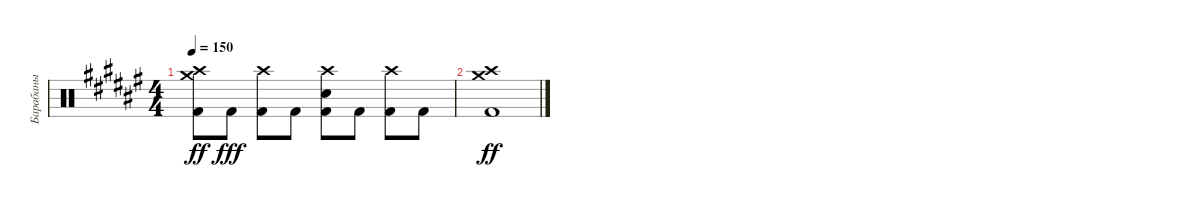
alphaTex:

\track ("Барабаны" "Барабаны") {instrument percussion}
\staff {score}
\articulation defaults
\ts (4 4)
\tempo 150
\clef neutral
\ks d#minor
("Crash high (hit)" "Kick (hit) 2" "Crash medium (hit)").8{dy ff} "Kick (hit) 2".8{dy fff} ("Crash high (hit)" "Kick (hit) 2").8 "Kick (hit) 2".8 ("Crash high (hit)" "Kick (hit) 2" "Electric Snare (hit)").8 "Kick (hit) 2".8 ("Crash high (hit)" "Kick (hit) 2").8 "Kick (hit) 2".8 |
("Kick (hit) 2" "Crash high (hit)" "Crash medium (hit)").1{dy ff}
